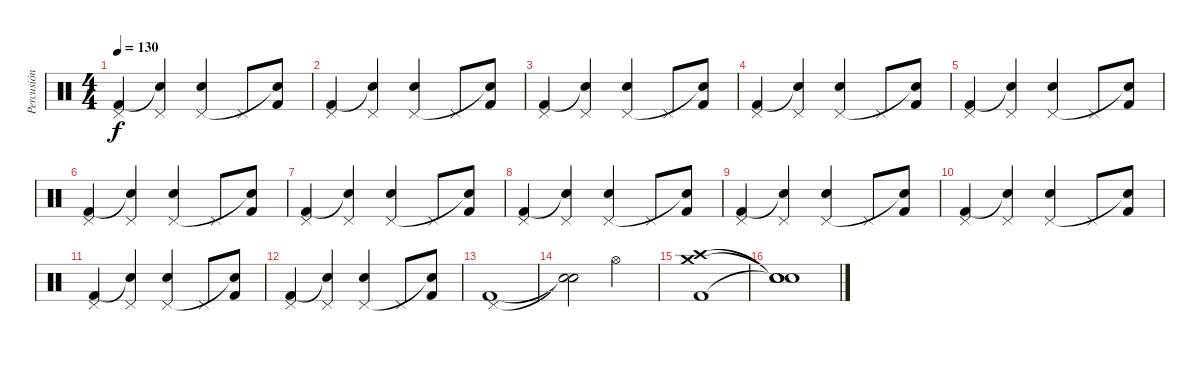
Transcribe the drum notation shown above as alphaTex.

\track ("Percusión" "Percusión") {instrument percussion}
\staff {score}
\articulation defaults
\ts (4 4)
\tempo 130
\clef neutral
\ks c
("Kick (hit) 2" "Pedal Hi-Hat (hit)").4{dy f} ("Snare (hit)"{t} "Pedal Hi-Hat (hit)").4 ("Snare (hit) 2" "Pedal Hi-Hat (hit)").4 "Pedal Hi-Hat (hit)".8 ("Kick (hit) 2" "Snare (hit)"{t}).8 |
("Kick (hit) 2" "Pedal Hi-Hat (hit)").4 ("Snare (hit)"{t} "Pedal Hi-Hat (hit)").4 ("Snare (hit) 2" "Pedal Hi-Hat (hit)").4 "Pedal Hi-Hat (hit)".8 ("Kick (hit) 2" "Snare (hit)"{t}).8 |
("Kick (hit) 2" "Pedal Hi-Hat (hit)").4 ("Snare (hit)"{t} "Pedal Hi-Hat (hit)").4 ("Snare (hit) 2" "Pedal Hi-Hat (hit)").4 "Pedal Hi-Hat (hit)".8 ("Kick (hit) 2" "Snare (hit)"{t}).8 |
("Kick (hit) 2" "Pedal Hi-Hat (hit)").4 ("Snare (hit)"{t} "Pedal Hi-Hat (hit)").4 ("Snare (hit) 2" "Pedal Hi-Hat (hit)").4 "Pedal Hi-Hat (hit)".8 ("Kick (hit) 2" "Snare (hit)"{t}).8 |
("Kick (hit) 2" "Pedal Hi-Hat (hit)").4 ("Snare (hit)"{t} "Pedal Hi-Hat (hit)").4 ("Snare (hit) 2" "Pedal Hi-Hat (hit)").4 "Pedal Hi-Hat (hit)".8 ("Kick (hit) 2" "Snare (hit)"{t}).8 |
("Kick (hit) 2" "Pedal Hi-Hat (hit)").4 ("Snare (hit)"{t} "Pedal Hi-Hat (hit)").4 ("Snare (hit) 2" "Pedal Hi-Hat (hit)").4 "Pedal Hi-Hat (hit)".8 ("Kick (hit) 2" "Snare (hit)"{t}).8 |
("Kick (hit) 2" "Pedal Hi-Hat (hit)").4 ("Snare (hit)"{t} "Pedal Hi-Hat (hit)").4 ("Snare (hit) 2" "Pedal Hi-Hat (hit)").4 "Pedal Hi-Hat (hit)".8 ("Kick (hit) 2" "Snare (hit)"{t}).8 |
("Kick (hit) 2" "Pedal Hi-Hat (hit)").4 ("Snare (hit)"{t} "Pedal Hi-Hat (hit)").4 ("Snare (hit) 2" "Pedal Hi-Hat (hit)").4 "Pedal Hi-Hat (hit)".8 ("Kick (hit) 2" "Snare (hit)"{t}).8 |
("Kick (hit) 2" "Pedal Hi-Hat (hit)").4 ("Snare (hit)"{t} "Pedal Hi-Hat (hit)").4 ("Snare (hit) 2" "Pedal Hi-Hat (hit)").4 "Pedal Hi-Hat (hit)".8 ("Kick (hit) 2" "Snare (hit)"{t}).8 |
("Kick (hit) 2" "Pedal Hi-Hat (hit)").4 ("Snare (hit)"{t} "Pedal Hi-Hat (hit)").4 ("Snare (hit) 2" "Pedal Hi-Hat (hit)").4 "Pedal Hi-Hat (hit)".8 ("Kick (hit) 2" "Snare (hit)"{t}).8 |
("Kick (hit) 2" "Pedal Hi-Hat (hit)").4 ("Snare (hit)"{t} "Pedal Hi-Hat (hit)").4 ("Snare (hit) 2" "Pedal Hi-Hat (hit)").4 "Pedal Hi-Hat (hit)".8 ("Kick (hit) 2" "Snare (hit)"{t}).8 |
("Kick (hit) 2" "Pedal Hi-Hat (hit)").4 ("Snare (hit)"{t} "Pedal Hi-Hat (hit)").4 ("Snare (hit) 2" "Pedal Hi-Hat (hit)").4 "Pedal Hi-Hat (hit)".8 ("Kick (hit) 2" "Snare (hit)"{t}).8 |
("Kick (hit) 2" "Pedal Hi-Hat (hit)").1 |
("Snare (hit)"{t} "Snare (hit)"{t}).2 "Hi-Hat (open)".2 |
("Crash high (hit)" "Kick (hit) 2" "Crash medium (hit)").1 |
("Snare (hit)"{t} "Snare (hit)"{t} "Snare (hit)"{t}).1
